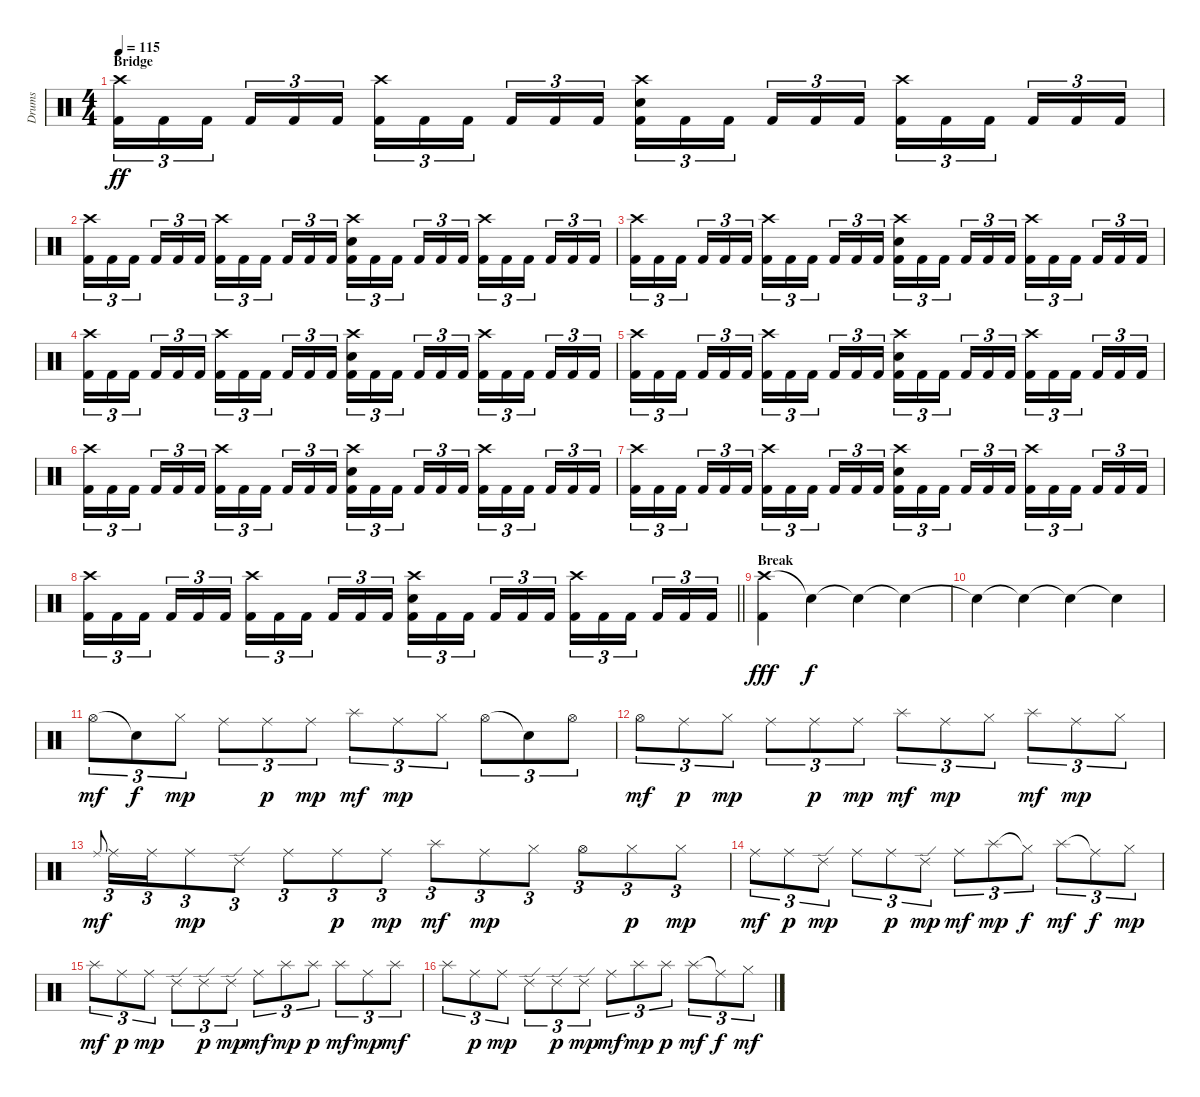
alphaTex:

\track ("Drums" "Drums") {instrument percussion}
\staff {score}
\articulation defaults
\ts (4 4)
\section ("" "Bridge")
\tempo 115
\clef neutral
\ks c
("Crash high (hit)" "Kick (hit) 2").16{tu (3 2) dy ff} "Kick (hit) 2".16{tu (3 2)} "Kick (hit) 2".16{tu (3 2) beam splitsecondary} "Kick (hit) 2".16{tu (3 2)} "Kick (hit) 2".16{tu (3 2)} "Kick (hit) 2".16{tu (3 2)} ("Crash high (hit)" "Kick (hit) 2").16{tu (3 2)} "Kick (hit) 2".16{tu (3 2)} "Kick (hit) 2".16{tu (3 2) beam splitsecondary} "Kick (hit) 2".16{tu (3 2)} "Kick (hit) 2".16{tu (3 2)} "Kick (hit) 2".16{tu (3 2)} ("Crash high (hit)" "Snare (hit) 2" "Kick (hit) 2").16{tu (3 2)} "Kick (hit) 2".16{tu (3 2)} "Kick (hit) 2".16{tu (3 2) beam splitsecondary} "Kick (hit) 2".16{tu (3 2)} "Kick (hit) 2".16{tu (3 2)} "Kick (hit) 2".16{tu (3 2)} ("Crash high (hit)" "Kick (hit) 2").16{tu (3 2)} "Kick (hit) 2".16{tu (3 2)} "Kick (hit) 2".16{tu (3 2) beam splitsecondary} "Kick (hit) 2".16{tu (3 2)} "Kick (hit) 2".16{tu (3 2)} "Kick (hit) 2".16{tu (3 2)} |
("Crash high (hit)" "Kick (hit) 2").16{tu (3 2)} "Kick (hit) 2".16{tu (3 2)} "Kick (hit) 2".16{tu (3 2) beam splitsecondary} "Kick (hit) 2".16{tu (3 2)} "Kick (hit) 2".16{tu (3 2)} "Kick (hit) 2".16{tu (3 2)} ("Crash high (hit)" "Kick (hit) 2").16{tu (3 2)} "Kick (hit) 2".16{tu (3 2)} "Kick (hit) 2".16{tu (3 2) beam splitsecondary} "Kick (hit) 2".16{tu (3 2)} "Kick (hit) 2".16{tu (3 2)} "Kick (hit) 2".16{tu (3 2)} ("Crash high (hit)" "Snare (hit) 2" "Kick (hit) 2").16{tu (3 2)} "Kick (hit) 2".16{tu (3 2)} "Kick (hit) 2".16{tu (3 2) beam splitsecondary} "Kick (hit) 2".16{tu (3 2)} "Kick (hit) 2".16{tu (3 2)} "Kick (hit) 2".16{tu (3 2)} ("Crash high (hit)" "Kick (hit) 2").16{tu (3 2)} "Kick (hit) 2".16{tu (3 2)} "Kick (hit) 2".16{tu (3 2) beam splitsecondary} "Kick (hit) 2".16{tu (3 2)} "Kick (hit) 2".16{tu (3 2)} "Kick (hit) 2".16{tu (3 2)} |
("Crash high (hit)" "Kick (hit) 2").16{tu (3 2)} "Kick (hit) 2".16{tu (3 2)} "Kick (hit) 2".16{tu (3 2) beam splitsecondary} "Kick (hit) 2".16{tu (3 2)} "Kick (hit) 2".16{tu (3 2)} "Kick (hit) 2".16{tu (3 2)} ("Crash high (hit)" "Kick (hit) 2").16{tu (3 2)} "Kick (hit) 2".16{tu (3 2)} "Kick (hit) 2".16{tu (3 2) beam splitsecondary} "Kick (hit) 2".16{tu (3 2)} "Kick (hit) 2".16{tu (3 2)} "Kick (hit) 2".16{tu (3 2)} ("Crash high (hit)" "Snare (hit) 2" "Kick (hit) 2").16{tu (3 2)} "Kick (hit) 2".16{tu (3 2)} "Kick (hit) 2".16{tu (3 2) beam splitsecondary} "Kick (hit) 2".16{tu (3 2)} "Kick (hit) 2".16{tu (3 2)} "Kick (hit) 2".16{tu (3 2)} ("Crash high (hit)" "Kick (hit) 2").16{tu (3 2)} "Kick (hit) 2".16{tu (3 2)} "Kick (hit) 2".16{tu (3 2) beam splitsecondary} "Kick (hit) 2".16{tu (3 2)} "Kick (hit) 2".16{tu (3 2)} "Kick (hit) 2".16{tu (3 2)} |
("Crash high (hit)" "Kick (hit) 2").16{tu (3 2)} "Kick (hit) 2".16{tu (3 2)} "Kick (hit) 2".16{tu (3 2) beam splitsecondary} "Kick (hit) 2".16{tu (3 2)} "Kick (hit) 2".16{tu (3 2)} "Kick (hit) 2".16{tu (3 2)} ("Crash high (hit)" "Kick (hit) 2").16{tu (3 2)} "Kick (hit) 2".16{tu (3 2)} "Kick (hit) 2".16{tu (3 2) beam splitsecondary} "Kick (hit) 2".16{tu (3 2)} "Kick (hit) 2".16{tu (3 2)} "Kick (hit) 2".16{tu (3 2)} ("Crash high (hit)" "Snare (hit) 2" "Kick (hit) 2").16{tu (3 2)} "Kick (hit) 2".16{tu (3 2)} "Kick (hit) 2".16{tu (3 2) beam splitsecondary} "Kick (hit) 2".16{tu (3 2)} "Kick (hit) 2".16{tu (3 2)} "Kick (hit) 2".16{tu (3 2)} ("Crash high (hit)" "Kick (hit) 2").16{tu (3 2)} "Kick (hit) 2".16{tu (3 2)} "Kick (hit) 2".16{tu (3 2) beam splitsecondary} "Kick (hit) 2".16{tu (3 2)} "Kick (hit) 2".16{tu (3 2)} "Kick (hit) 2".16{tu (3 2)} |
("Crash high (hit)" "Kick (hit) 2").16{tu (3 2)} "Kick (hit) 2".16{tu (3 2)} "Kick (hit) 2".16{tu (3 2) beam splitsecondary} "Kick (hit) 2".16{tu (3 2)} "Kick (hit) 2".16{tu (3 2)} "Kick (hit) 2".16{tu (3 2)} ("Crash high (hit)" "Kick (hit) 2").16{tu (3 2)} "Kick (hit) 2".16{tu (3 2)} "Kick (hit) 2".16{tu (3 2) beam splitsecondary} "Kick (hit) 2".16{tu (3 2)} "Kick (hit) 2".16{tu (3 2)} "Kick (hit) 2".16{tu (3 2)} ("Crash high (hit)" "Snare (hit) 2" "Kick (hit) 2").16{tu (3 2)} "Kick (hit) 2".16{tu (3 2)} "Kick (hit) 2".16{tu (3 2) beam splitsecondary} "Kick (hit) 2".16{tu (3 2)} "Kick (hit) 2".16{tu (3 2)} "Kick (hit) 2".16{tu (3 2)} ("Crash high (hit)" "Kick (hit) 2").16{tu (3 2)} "Kick (hit) 2".16{tu (3 2)} "Kick (hit) 2".16{tu (3 2) beam splitsecondary} "Kick (hit) 2".16{tu (3 2)} "Kick (hit) 2".16{tu (3 2)} "Kick (hit) 2".16{tu (3 2)} |
("Crash high (hit)" "Kick (hit) 2").16{tu (3 2)} "Kick (hit) 2".16{tu (3 2)} "Kick (hit) 2".16{tu (3 2) beam splitsecondary} "Kick (hit) 2".16{tu (3 2)} "Kick (hit) 2".16{tu (3 2)} "Kick (hit) 2".16{tu (3 2)} ("Crash high (hit)" "Kick (hit) 2").16{tu (3 2)} "Kick (hit) 2".16{tu (3 2)} "Kick (hit) 2".16{tu (3 2) beam splitsecondary} "Kick (hit) 2".16{tu (3 2)} "Kick (hit) 2".16{tu (3 2)} "Kick (hit) 2".16{tu (3 2)} ("Crash high (hit)" "Snare (hit) 2" "Kick (hit) 2").16{tu (3 2)} "Kick (hit) 2".16{tu (3 2)} "Kick (hit) 2".16{tu (3 2) beam splitsecondary} "Kick (hit) 2".16{tu (3 2)} "Kick (hit) 2".16{tu (3 2)} "Kick (hit) 2".16{tu (3 2)} ("Crash high (hit)" "Kick (hit) 2").16{tu (3 2)} "Kick (hit) 2".16{tu (3 2)} "Kick (hit) 2".16{tu (3 2) beam splitsecondary} "Kick (hit) 2".16{tu (3 2)} "Kick (hit) 2".16{tu (3 2)} "Kick (hit) 2".16{tu (3 2)} |
("Crash high (hit)" "Kick (hit) 2").16{tu (3 2)} "Kick (hit) 2".16{tu (3 2)} "Kick (hit) 2".16{tu (3 2) beam splitsecondary} "Kick (hit) 2".16{tu (3 2)} "Kick (hit) 2".16{tu (3 2)} "Kick (hit) 2".16{tu (3 2)} ("Crash high (hit)" "Kick (hit) 2").16{tu (3 2)} "Kick (hit) 2".16{tu (3 2)} "Kick (hit) 2".16{tu (3 2) beam splitsecondary} "Kick (hit) 2".16{tu (3 2)} "Kick (hit) 2".16{tu (3 2)} "Kick (hit) 2".16{tu (3 2)} ("Crash high (hit)" "Snare (hit) 2" "Kick (hit) 2").16{tu (3 2)} "Kick (hit) 2".16{tu (3 2)} "Kick (hit) 2".16{tu (3 2) beam splitsecondary} "Kick (hit) 2".16{tu (3 2)} "Kick (hit) 2".16{tu (3 2)} "Kick (hit) 2".16{tu (3 2)} ("Crash high (hit)" "Kick (hit) 2").16{tu (3 2)} "Kick (hit) 2".16{tu (3 2)} "Kick (hit) 2".16{tu (3 2) beam splitsecondary} "Kick (hit) 2".16{tu (3 2)} "Kick (hit) 2".16{tu (3 2)} "Kick (hit) 2".16{tu (3 2)} |
\barLineRight lightlight
("Crash high (hit)" "Kick (hit) 2").16{tu (3 2)} "Kick (hit) 2".16{tu (3 2)} "Kick (hit) 2".16{tu (3 2) beam splitsecondary} "Kick (hit) 2".16{tu (3 2)} "Kick (hit) 2".16{tu (3 2)} "Kick (hit) 2".16{tu (3 2)} ("Crash high (hit)" "Kick (hit) 2").16{tu (3 2)} "Kick (hit) 2".16{tu (3 2)} "Kick (hit) 2".16{tu (3 2) beam splitsecondary} "Kick (hit) 2".16{tu (3 2)} "Kick (hit) 2".16{tu (3 2)} "Kick (hit) 2".16{tu (3 2)} ("Crash high (hit)" "Snare (hit) 2" "Kick (hit) 2").16{tu (3 2)} "Kick (hit) 2".16{tu (3 2)} "Kick (hit) 2".16{tu (3 2) beam splitsecondary} "Kick (hit) 2".16{tu (3 2)} "Kick (hit) 2".16{tu (3 2)} "Kick (hit) 2".16{tu (3 2)} ("Crash high (hit)" "Kick (hit) 2").16{tu (3 2)} "Kick (hit) 2".16{tu (3 2)} "Kick (hit) 2".16{tu (3 2) beam splitsecondary} "Kick (hit) 2".16{tu (3 2)} "Kick (hit) 2".16{tu (3 2)} "Kick (hit) 2".16{tu (3 2)} |
\section ("" "Break")
("Crash high (hit)" "Kick (hit) 2").4{dy fff} "Snare (hit)"{t}.4{dy f} "Snare (hit)"{t}.4 "Snare (hit)"{t}.4 |
"Snare (hit)"{t}.4 "Snare (hit)"{t}.4 "Snare (hit)"{t}.4 "Snare (hit)"{t}.4 |
"Hi-Hat (open)".8{tu (3 2) dy mf} "Snare (hit)"{t}.8{tu (3 2) dy f} "Hi-Hat (closed)".8{tu (3 2) dy mp} "Ride (middle)".8{tu (3 2)} "Ride (middle)".8{tu (3 2) dy p} "Ride (middle)".8{tu (3 2) dy mp} "Splash (hit)".8{tu (3 2) dy mf} "Ride (middle)".8{tu (3 2) dy mp} "Hi-Hat (closed)".8{tu (3 2)} "Hi-Hat (open)".8{tu (3 2)} "Snare (hit)"{t}.8{tu (3 2)} "Hi-Hat (open)".8{tu (3 2)} |
"Hi-Hat (open)".8{tu (3 2) dy mf} "Ride (middle)".8{tu (3 2) dy p} "Hi-Hat (closed)".8{tu (3 2) dy mp} "Ride (middle)".8{tu (3 2)} "Ride (middle)".8{tu (3 2) dy p} "Ride (middle)".8{tu (3 2) dy mp} "Splash (hit)".8{tu (3 2) dy mf} "Ride (middle)".8{tu (3 2) dy mp} "Hi-Hat (closed)".8{tu (3 2)} "Splash (hit)".8{tu (3 2) dy mf} "Ride (middle)".8{tu (3 2) dy mp} "Hi-Hat (closed)".8{tu (3 2)} |
"Ride (middle)".8{gr onbeat dy mf} "Ride (middle)".16{tu (3 2)} "Ride (middle)".16{tu (3 2)} "Ride (middle)".8{tu (3 2) dy mp} "Ride (edge) 2".8{tu (3 2)} "Ride (middle)".8{tu (3 2)} "Ride (middle)".8{tu (3 2) dy p} "Ride (middle)".8{tu (3 2) dy mp} "Splash (hit)".8{tu (3 2) dy mf} "Ride (middle)".8{tu (3 2) dy mp} "Hi-Hat (closed)".8{tu (3 2)} "Hi-Hat (open)".8{tu (3 2)} "Hi-Hat (closed)".8{tu (3 2) dy p} "Hi-Hat (closed)".8{tu (3 2) dy mp} |
"Ride (middle)".8{tu (3 2) dy mf} "Ride (middle)".8{tu (3 2) dy p} "Ride (edge) 2".8{tu (3 2) dy mp} "Ride (middle)".8{tu (3 2)} "Ride (middle)".8{tu (3 2) dy p} "Ride (edge) 2".8{tu (3 2) dy mp} "Ride (middle)".8{tu (3 2) dy mf} "Splash (hit)".8{tu (3 2) dy mp} "Hi-Hat (closed)"{t}.8{tu (3 2) dy f} "Splash (hit)".8{tu (3 2) dy mf} "Ride (middle)"{t}.8{tu (3 2) dy f} "Hi-Hat (closed)".8{tu (3 2) dy mp} |
"Splash (hit)".8{tu (3 2) dy mf} "Ride (middle)".8{tu (3 2) dy p} "Ride (middle)".8{tu (3 2) dy mp} "Ride (edge) 2".8{tu (3 2)} "Ride (edge) 2".8{tu (3 2) dy p} "Ride (edge) 2".8{tu (3 2) dy mp} "Ride (middle)".8{tu (3 2) dy mf} "Splash (hit)".8{tu (3 2) dy mp} "Splash (hit)".8{tu (3 2) dy p} "Splash (hit)".8{tu (3 2) dy mf} "Ride (middle)".8{tu (3 2) dy mp} "Splash (hit)".8{tu (3 2) dy mf} |
"Splash (hit)".8{tu (3 2)} "Ride (middle)".8{tu (3 2) dy p} "Ride (middle)".8{tu (3 2) dy mp} "Ride (edge) 2".8{tu (3 2)} "Ride (edge) 2".8{tu (3 2) dy p} "Ride (edge) 2".8{tu (3 2) dy mp} "Ride (middle)".8{tu (3 2) dy mf} "Splash (hit)".8{tu (3 2) dy mp} "Splash (hit)".8{tu (3 2) dy p} "Splash (hit)".8{tu (3 2) dy mf} "Ride (middle)"{t}.8{tu (3 2) dy f} "Hi-Hat (closed)".8{tu (3 2) dy mf}
